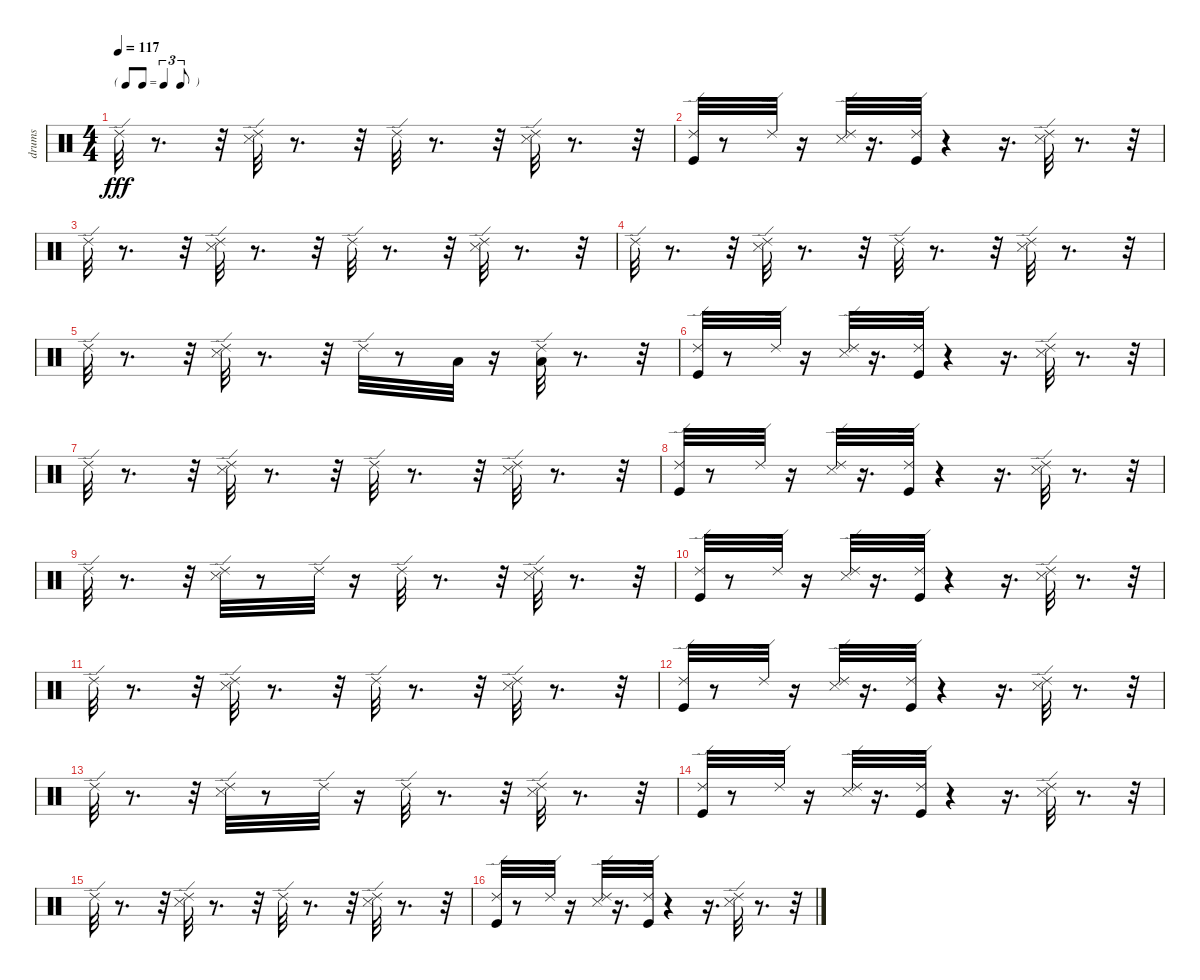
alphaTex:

\track ("drums" "drums") {instrument percussion}
\staff {score}
\articulation defaults
\ts (4 4)
\tf triplet8th
\tempo 117
\clef neutral
\ks c "Ride (edge) 2".32{dy fff}
r.8{d} r.32 ("Snare (side stick) 3" "Ride (edge) 2").32 r.8{d} r.32 "Ride (edge) 2".32 r.8{d} r.32 ("Snare (side stick) 3" "Ride (edge) 2").32 r.8{d} r.32 |
("Kick (hit)" "Ride (edge) 2").32 r.8 "Ride (edge) 2".32 r.16 ("Snare (side stick) 3" "Ride (edge) 2").32 r.16{d} ("Kick (hit)" "Ride (edge) 2").32 r.4 r.16{d} ("Snare (side stick) 3" "Ride (edge) 2").32 r.8{d} r.32 |
"Ride (edge) 2".32 r.8{d} r.32 ("Snare (side stick) 3" "Ride (edge) 2").32 r.8{d} r.32 "Ride (edge) 2".32 r.8{d} r.32 ("Snare (side stick) 3" "Ride (edge) 2").32 r.8{d} r.32 |
"Ride (edge) 2".32 r.8{d} r.32 ("Snare (side stick) 3" "Ride (edge) 2").32 r.8{d} r.32 "Ride (edge) 2".32 r.8{d} r.32 ("Snare (side stick) 3" "Ride (edge) 2").32 r.8{d} r.32 |
"Ride (edge) 2".32 r.8{d} r.32 ("Snare (side stick) 3" "Ride (edge) 2").32 r.8{d} r.32 "Ride (edge) 2".32 r.8 "Low Floor Tom (hit)".32 r.16 ("Ride (edge) 2" "Low Floor Tom (hit)").32 r.8{d} r.32 |
("Kick (hit)" "Ride (edge) 2").32 r.8 "Ride (edge) 2".32 r.16 ("Snare (side stick) 3" "Ride (edge) 2").32 r.16{d} ("Kick (hit)" "Ride (edge) 2").32 r.4 r.16{d} ("Snare (side stick) 3" "Ride (edge) 2").32 r.8{d} r.32 |
"Ride (edge) 2".32 r.8{d} r.32 ("Snare (side stick) 3" "Ride (edge) 2").32 r.8{d} r.32 "Ride (edge) 2".32 r.8{d} r.32 ("Snare (side stick) 3" "Ride (edge) 2").32 r.8{d} r.32 |
("Kick (hit)" "Ride (edge) 2").32 r.8 "Ride (edge) 2".32 r.16 ("Snare (side stick) 3" "Ride (edge) 2").32 r.16{d} ("Kick (hit)" "Ride (edge) 2").32 r.4 r.16{d} ("Snare (side stick) 3" "Ride (edge) 2").32 r.8{d} r.32 |
"Ride (edge) 2".32 r.8{d} r.32 ("Snare (side stick) 3" "Ride (edge) 2").32 r.8 "Ride (edge) 2".32 r.16 "Ride (edge) 2".32 r.8{d} r.32 ("Snare (side stick) 3" "Ride (edge) 2").32 r.8{d} r.32 |
("Kick (hit)" "Ride (edge) 2").32 r.8 "Ride (edge) 2".32 r.16 ("Snare (side stick) 3" "Ride (edge) 2").32 r.16{d} ("Kick (hit)" "Ride (edge) 2").32 r.4 r.16{d} ("Snare (side stick) 3" "Ride (edge) 2").32 r.8{d} r.32 |
"Ride (edge) 2".32 r.8{d} r.32 ("Snare (side stick) 3" "Ride (edge) 2").32 r.8{d} r.32 "Ride (edge) 2".32 r.8{d} r.32 ("Snare (side stick) 3" "Ride (edge) 2").32 r.8{d} r.32 |
("Kick (hit)" "Ride (edge) 2").32 r.8 "Ride (edge) 2".32 r.16 ("Snare (side stick) 3" "Ride (edge) 2").32 r.16{d} ("Kick (hit)" "Ride (edge) 2").32 r.4 r.16{d} ("Snare (side stick) 3" "Ride (edge) 2").32 r.8{d} r.32 |
"Ride (edge) 2".32 r.8{d} r.32 ("Snare (side stick) 3" "Ride (edge) 2").32 r.8 "Ride (edge) 2".32 r.16 "Ride (edge) 2".32 r.8{d} r.32 ("Snare (side stick) 3" "Ride (edge) 2").32 r.8{d} r.32 |
("Kick (hit)" "Ride (edge) 2").32 r.8 "Ride (edge) 2".32 r.16 ("Snare (side stick) 3" "Ride (edge) 2").32 r.16{d} ("Kick (hit)" "Ride (edge) 2").32 r.4 r.16{d} ("Snare (side stick) 3" "Ride (edge) 2").32 r.8{d} r.32 |
"Ride (edge) 2".32 r.8{d} r.32 ("Snare (side stick) 3" "Ride (edge) 2").32 r.8{d} r.32 "Ride (edge) 2".32 r.8{d} r.32 ("Snare (side stick) 3" "Ride (edge) 2").32 r.8{d} r.32 |
("Kick (hit)" "Ride (edge) 2").32 r.8 "Ride (edge) 2".32 r.16 ("Snare (side stick) 3" "Ride (edge) 2").32 r.16{d} ("Kick (hit)" "Ride (edge) 2").32 r.4 r.16{d} ("Snare (side stick) 3" "Ride (edge) 2").32 r.8{d} r.32
